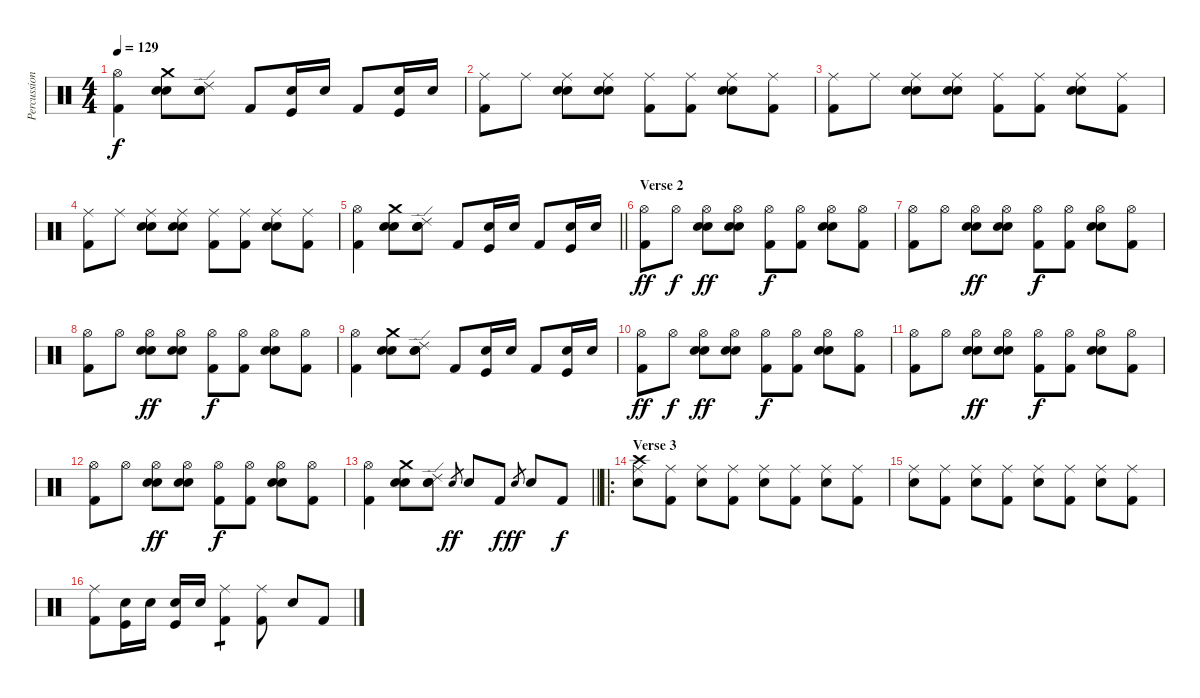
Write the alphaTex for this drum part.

\track ("Percussion" "Percussion") {instrument percussion}
\staff {score}
\articulation defaults
\ts (4 4)
\tempo 129
\clef neutral
\ks c
("Kick (hit) 2" "Hi-Hat (open)").4{dy f} ("Hand Clap (hit)" "Electric Snare (hit)" "Crash medium (hit)").8 ("Electric Snare (hit)" "Hand Clap (hit)" "Ride (edge) 2").8 "Kick (hit) 2".8 ("Electric Snare (hit)" "Kick (hit)").16 "Electric Snare (hit)".16 "Kick (hit) 2".8 ("Electric Snare (hit)" "Kick (hit)").16 "Electric Snare (hit)".16 |
("Kick (hit) 2" "Ride (middle)").8 "Ride (middle)".8 ("Hand Clap (hit)" "Electric Snare (hit)" "Ride (middle)").8 ("Electric Snare (hit)" "Hand Clap (hit)" "Ride (middle)").8 ("Kick (hit) 2" "Ride (middle)").8 ("Kick (hit) 2" "Ride (middle)").8 ("Electric Snare (hit)" "Ride (middle)" "Hand Clap (hit)").8 ("Kick (hit) 2" "Ride (middle)").8 |
("Kick (hit) 2" "Ride (middle)").8 "Ride (middle)".8 ("Hand Clap (hit)" "Electric Snare (hit)" "Ride (middle)").8 ("Electric Snare (hit)" "Hand Clap (hit)" "Ride (middle)").8 ("Kick (hit) 2" "Ride (middle)").8 ("Kick (hit) 2" "Ride (middle)").8 ("Electric Snare (hit)" "Ride (middle)" "Hand Clap (hit)").8 ("Kick (hit) 2" "Ride (middle)").8 |
("Kick (hit) 2" "Ride (middle)").8 "Ride (middle)".8 ("Hand Clap (hit)" "Electric Snare (hit)" "Ride (middle)").8 ("Electric Snare (hit)" "Hand Clap (hit)" "Ride (middle)").8 ("Kick (hit) 2" "Ride (middle)").8 ("Kick (hit) 2" "Ride (middle)").8 ("Electric Snare (hit)" "Ride (middle)" "Hand Clap (hit)").8 ("Kick (hit) 2" "Ride (middle)").8 |
\barLineRight lightlight
("Kick (hit) 2" "Hi-Hat (open)").4 ("Hand Clap (hit)" "Electric Snare (hit)" "Crash medium (hit)").8 ("Electric Snare (hit)" "Hand Clap (hit)" "Ride (edge) 2").8 "Kick (hit) 2".8 ("Electric Snare (hit)" "Kick (hit)").16 "Electric Snare (hit)".16 "Kick (hit) 2".8 ("Electric Snare (hit)" "Kick (hit)").16 "Electric Snare (hit)".16 |
\section ("" "Verse 2")
("Kick (hit) 2" "Hi-Hat (open)").8{dy ff} "Hi-Hat (open)".8{dy f} ("Hand Clap (hit)" "Hi-Hat (open)" "Electric Snare (hit)").8{dy ff} ("Electric Snare (hit)" "Hi-Hat (open)" "Hand Clap (hit)").8 ("Kick (hit) 2" "Hi-Hat (open)").8{dy f} ("Kick (hit) 2" "Hi-Hat (open)").8 ("Electric Snare (hit)" "Hi-Hat (open)" "Hand Clap (hit)").8 ("Kick (hit) 2" "Hi-Hat (open)").8 |
("Kick (hit) 2" "Hi-Hat (open)").8 "Hi-Hat (open)".8 ("Hand Clap (hit)" "Hi-Hat (open)" "Electric Snare (hit)").8{dy ff} ("Electric Snare (hit)" "Hi-Hat (open)" "Hand Clap (hit)").8 ("Kick (hit) 2" "Hi-Hat (open)").8{dy f} ("Kick (hit) 2" "Hi-Hat (open)").8 ("Electric Snare (hit)" "Hi-Hat (open)" "Hand Clap (hit)").8 ("Kick (hit) 2" "Hi-Hat (open)").8 |
("Kick (hit) 2" "Hi-Hat (open)").8 "Hi-Hat (open)".8 ("Hand Clap (hit)" "Hi-Hat (open)" "Electric Snare (hit)").8{dy ff} ("Electric Snare (hit)" "Hi-Hat (open)" "Hand Clap (hit)").8 ("Kick (hit) 2" "Hi-Hat (open)").8{dy f} ("Kick (hit) 2" "Hi-Hat (open)").8 ("Electric Snare (hit)" "Hi-Hat (open)" "Hand Clap (hit)").8 ("Kick (hit) 2" "Hi-Hat (open)").8 |
("Kick (hit) 2" "Hi-Hat (open)").4 ("Hand Clap (hit)" "Electric Snare (hit)" "Crash medium (hit)").8 ("Electric Snare (hit)" "Hand Clap (hit)" "Ride (edge) 2").8 "Kick (hit) 2".8 ("Electric Snare (hit)" "Kick (hit)").16 "Electric Snare (hit)".16 "Kick (hit) 2".8 ("Electric Snare (hit)" "Kick (hit)").16 "Electric Snare (hit)".16 |
("Kick (hit) 2" "Hi-Hat (open)").8{dy ff} "Hi-Hat (open)".8{dy f} ("Hand Clap (hit)" "Hi-Hat (open)" "Electric Snare (hit)").8{dy ff} ("Electric Snare (hit)" "Hi-Hat (open)" "Hand Clap (hit)").8 ("Kick (hit) 2" "Hi-Hat (open)").8{dy f} ("Kick (hit) 2" "Hi-Hat (open)").8 ("Electric Snare (hit)" "Hi-Hat (open)" "Hand Clap (hit)").8 ("Kick (hit) 2" "Hi-Hat (open)").8 |
("Kick (hit) 2" "Hi-Hat (open)").8 "Hi-Hat (open)".8 ("Hand Clap (hit)" "Hi-Hat (open)" "Electric Snare (hit)").8{dy ff} ("Electric Snare (hit)" "Hi-Hat (open)" "Hand Clap (hit)").8 ("Kick (hit) 2" "Hi-Hat (open)").8{dy f} ("Kick (hit) 2" "Hi-Hat (open)").8 ("Electric Snare (hit)" "Hi-Hat (open)" "Hand Clap (hit)").8 ("Kick (hit) 2" "Hi-Hat (open)").8 |
("Kick (hit) 2" "Hi-Hat (open)").8 "Hi-Hat (open)".8 ("Hand Clap (hit)" "Hi-Hat (open)" "Electric Snare (hit)").8{dy ff} ("Electric Snare (hit)" "Hi-Hat (open)" "Hand Clap (hit)").8 ("Kick (hit) 2" "Hi-Hat (open)").8{dy f} ("Kick (hit) 2" "Hi-Hat (open)").8 ("Electric Snare (hit)" "Hi-Hat (open)" "Hand Clap (hit)").8 ("Kick (hit) 2" "Hi-Hat (open)").8 |
\barLineRight lightlight
("Kick (hit) 2" "Hi-Hat (open)").4 ("Hand Clap (hit)" "Electric Snare (hit)" "Crash medium (hit)").8 ("Electric Snare (hit)" "Hand Clap (hit)" "Ride (edge) 2").8 "Electric Snare (hit)".8{gr dy ff} "Electric Snare (hit)".8 "Kick (hit) 2".8{dy f} "Electric Snare (hit)".8{gr dy ff} "Electric Snare (hit)".8 "Kick (hit) 2".8{dy f} |
\ro
\section ("" "Verse 3")
("Electric Snare (hit)" "Ride (middle)" "Crash high (hit)").8 ("Kick (hit) 2" "Ride (middle)").8 ("Electric Snare (hit)" "Ride (middle)").8 ("Kick (hit) 2" "Ride (middle)").8 ("Electric Snare (hit)" "Ride (middle)").8 ("Kick (hit) 2" "Ride (middle)").8 ("Electric Snare (hit)" "Ride (middle)").8 ("Kick (hit) 2" "Ride (middle)").8 |
("Electric Snare (hit)" "Ride (middle)").8 ("Kick (hit) 2" "Ride (middle)").8 ("Electric Snare (hit)" "Ride (middle)").8 ("Kick (hit) 2" "Ride (middle)").8 ("Electric Snare (hit)" "Ride (middle)").8 ("Kick (hit) 2" "Ride (middle)").8 ("Electric Snare (hit)" "Ride (middle)").8 ("Kick (hit) 2" "Ride (middle)").8 |
("Kick (hit) 2" "Ride (middle)").8 ("Kick (hit)" "Electric Snare (hit)").16 "Electric Snare (hit)".16 ("Kick (hit)" "Electric Snare (hit)").16 "Electric Snare (hit)".16 ("Kick (hit) 2" "Ride (middle)").4{tp 1} ("Kick (hit) 2" "Ride (middle)").8 "Electric Snare (hit)".8 "Kick (hit) 2".8
